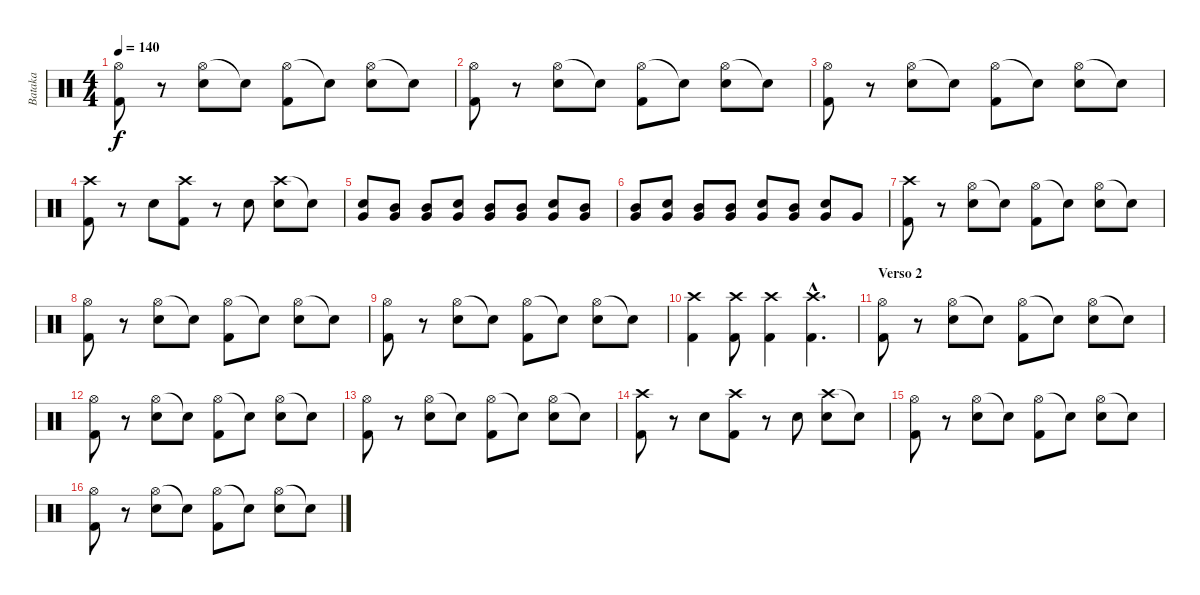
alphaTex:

\track ("Bataka" "Bataka") {instrument percussion}
\staff {score}
\articulation defaults
\ts (4 4)
\tempo 140
\clef neutral
\ks c
("Hi-Hat (open)" "Kick (hit) 2").8{dy f} r.8 ("Hi-Hat (open)" "Snare (hit) 2").8 "Snare (hit)"{t}.8 ("Hi-Hat (open)" "Kick (hit) 2").8 "Snare (hit)"{t}.8 ("Hi-Hat (open)" "Snare (hit) 2").8 "Snare (hit)"{t}.8 |
("Hi-Hat (open)" "Kick (hit) 2").8 r.8 ("Hi-Hat (open)" "Snare (hit) 2").8 "Snare (hit)"{t}.8 ("Hi-Hat (open)" "Kick (hit) 2").8 "Snare (hit)"{t}.8 ("Hi-Hat (open)" "Snare (hit) 2").8 "Snare (hit)"{t}.8 |
("Hi-Hat (open)" "Kick (hit) 2").8 r.8 ("Hi-Hat (open)" "Snare (hit) 2").8 "Snare (hit)"{t}.8 ("Hi-Hat (open)" "Kick (hit) 2").8 "Snare (hit)"{t}.8 ("Hi-Hat (open)" "Snare (hit) 2").8 "Snare (hit)"{t}.8 |
("Crash high (hit)" "Kick (hit) 2").8 r.8 "Snare (hit) 2".8 ("Crash high (hit)" "Kick (hit) 2").8 r.8 "Snare (hit) 2".8 ("Crash high (hit)" "Snare (hit) 2").8 "Snare (hit)"{t}.8 |
("Snare (hit) 2" "Very Low Tom (hit)").8 ("Mid Tom (hit)" "Very Low Tom (hit)").8 ("Mid Tom (hit)" "Very Low Tom (hit)").8 ("Snare (hit) 2" "Very Low Tom (hit)").8 ("Mid Tom (hit)" "Very Low Tom (hit)").8 ("Mid Tom (hit)" "Very Low Tom (hit)").8 ("Snare (hit) 2" "Very Low Tom (hit)").8 ("Mid Tom (hit)" "Very Low Tom (hit)").8 |
("Mid Tom (hit)" "Very Low Tom (hit)").8 ("Snare (hit) 2" "Very Low Tom (hit)").8 ("Mid Tom (hit)" "Very Low Tom (hit)").8 ("Mid Tom (hit)" "Very Low Tom (hit)").8 ("Snare (hit) 2" "Very Low Tom (hit)").8 ("Mid Tom (hit)" "Very Low Tom (hit)").8 ("Snare (hit) 2" "Very Low Tom (hit)").8 "Very Low Tom (hit)".8 |
("Crash high (hit)" "Kick (hit) 2").8 r.8 ("Hi-Hat (open)" "Snare (hit) 2").8 "Snare (hit)"{t}.8 ("Hi-Hat (open)" "Kick (hit) 2").8 "Snare (hit)"{t}.8 ("Hi-Hat (open)" "Snare (hit) 2").8 "Snare (hit)"{t}.8 |
("Hi-Hat (open)" "Kick (hit) 2").8 r.8 ("Hi-Hat (open)" "Snare (hit) 2").8 "Snare (hit)"{t}.8 ("Hi-Hat (open)" "Kick (hit) 2").8 "Snare (hit)"{t}.8 ("Hi-Hat (open)" "Snare (hit) 2").8 "Snare (hit)"{t}.8 |
("Hi-Hat (open)" "Kick (hit) 2").8 r.8 ("Hi-Hat (open)" "Snare (hit) 2").8 "Snare (hit)"{t}.8 ("Hi-Hat (open)" "Kick (hit) 2").8 "Snare (hit)"{t}.8 ("Hi-Hat (open)" "Snare (hit) 2").8 "Snare (hit)"{t}.8 |
("Crash high (hit)" "Kick (hit) 2").4 ("Crash high (hit)" "Kick (hit) 2").8 ("Crash high (hit)" "Kick (hit) 2").4 ("Crash high (hit)"{hac} "Kick (hit) 2"{hac}).4{d} |
\section ("" "Verso 2")
("Hi-Hat (open)" "Kick (hit) 2").8 r.8 ("Hi-Hat (open)" "Snare (hit) 2").8 "Snare (hit)"{t}.8 ("Hi-Hat (open)" "Kick (hit) 2").8 "Snare (hit)"{t}.8 ("Hi-Hat (open)" "Snare (hit) 2").8 "Snare (hit)"{t}.8 |
("Hi-Hat (open)" "Kick (hit) 2").8 r.8 ("Hi-Hat (open)" "Snare (hit) 2").8 "Snare (hit)"{t}.8 ("Hi-Hat (open)" "Kick (hit) 2").8 "Snare (hit)"{t}.8 ("Hi-Hat (open)" "Snare (hit) 2").8 "Snare (hit)"{t}.8 |
("Hi-Hat (open)" "Kick (hit) 2").8 r.8 ("Hi-Hat (open)" "Snare (hit) 2").8 "Snare (hit)"{t}.8 ("Hi-Hat (open)" "Kick (hit) 2").8 "Snare (hit)"{t}.8 ("Hi-Hat (open)" "Snare (hit) 2").8 "Snare (hit)"{t}.8 |
("Crash high (hit)" "Kick (hit) 2").8 r.8 "Snare (hit) 2".8 ("Crash high (hit)" "Kick (hit) 2").8 r.8 "Snare (hit) 2".8 ("Crash high (hit)" "Snare (hit) 2").8 "Snare (hit)"{t}.8 |
("Hi-Hat (open)" "Kick (hit) 2").8 r.8 ("Hi-Hat (open)" "Snare (hit) 2").8 "Snare (hit)"{t}.8 ("Hi-Hat (open)" "Kick (hit) 2").8 "Snare (hit)"{t}.8 ("Hi-Hat (open)" "Snare (hit) 2").8 "Snare (hit)"{t}.8 |
("Hi-Hat (open)" "Kick (hit) 2").8 r.8 ("Hi-Hat (open)" "Snare (hit) 2").8 "Snare (hit)"{t}.8 ("Hi-Hat (open)" "Kick (hit) 2").8 "Snare (hit)"{t}.8 ("Hi-Hat (open)" "Snare (hit) 2").8 "Snare (hit)"{t}.8
